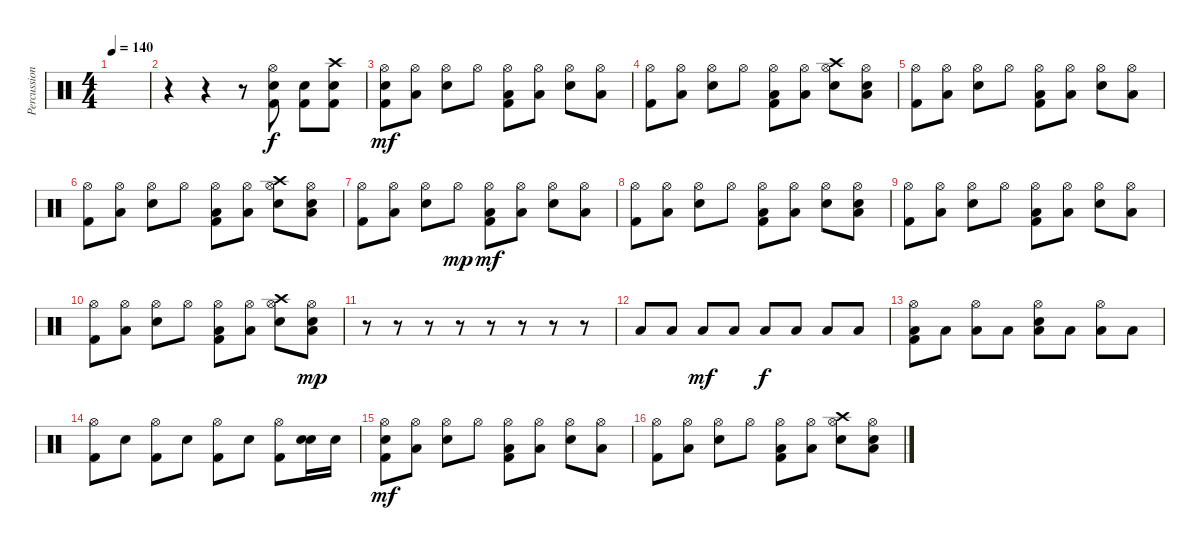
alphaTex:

\track ("Percussion" "Percussion") {instrument percussion}
\staff {score}
\articulation defaults
\ts (4 4)
\tempo 140
\clef neutral
\ks c
|
r.4 r.4 r.8 ("Hi-Hat (open)" "Electric Snare (hit)" "Kick (hit) 2").8 ("Electric Snare (hit)" "Kick (hit) 2").8 ("Crash high (hit)" "Electric Snare (hit)" "Kick (hit) 2").8 |
("Electric Snare (hit)" "Hi-Hat (open)" "Kick (hit) 2").8{dy mf} ("Low Tom (hit)" "Hi-Hat (open)").8 ("Hi-Hat (open)" "Electric Snare (hit)").8 "Hi-Hat (open)".8 ("Low Tom (hit)" "Hi-Hat (open)" "Kick (hit) 2").8 ("Low Tom (hit)" "Hi-Hat (open)").8 ("Hi-Hat (open)" "Electric Snare (hit)").8 ("Low Tom (hit)" "Hi-Hat (open)").8 |
("Hi-Hat (open)" "Kick (hit) 2").8 ("Low Tom (hit)" "Hi-Hat (open)").8 ("Hi-Hat (open)" "Electric Snare (hit)").8 "Hi-Hat (open)".8 ("Low Tom (hit)" "Hi-Hat (open)" "Kick (hit) 2").8 ("Low Tom (hit)" "Hi-Hat (open)").8 ("Crash high (hit)" "Hi-Hat (open)" "Electric Snare (hit)").8 ("Low Tom (hit)" "Hi-Hat (open)" "Electric Snare (hit)").8 |
("Hi-Hat (open)" "Kick (hit) 2").8 ("Low Tom (hit)" "Hi-Hat (open)").8 ("Hi-Hat (open)" "Electric Snare (hit)").8 "Hi-Hat (open)".8 ("Low Tom (hit)" "Hi-Hat (open)" "Kick (hit) 2").8 ("Low Tom (hit)" "Hi-Hat (open)").8 ("Hi-Hat (open)" "Electric Snare (hit)").8 ("Low Tom (hit)" "Hi-Hat (open)").8 |
("Hi-Hat (open)" "Kick (hit) 2").8 ("Low Tom (hit)" "Hi-Hat (open)").8 ("Hi-Hat (open)" "Electric Snare (hit)").8 "Hi-Hat (open)".8 ("Low Tom (hit)" "Hi-Hat (open)" "Kick (hit) 2").8 ("Low Tom (hit)" "Hi-Hat (open)").8 ("Crash high (hit)" "Hi-Hat (open)" "Electric Snare (hit)").8 ("Low Tom (hit)" "Hi-Hat (open)" "Electric Snare (hit)").8 |
("Hi-Hat (open)" "Kick (hit) 2").8 ("Low Tom (hit)" "Hi-Hat (open)").8 ("Hi-Hat (open)" "Electric Snare (hit)").8 "Hi-Hat (open)".8{dy mp} ("Low Tom (hit)" "Hi-Hat (open)" "Kick (hit) 2").8{dy mf} ("Low Tom (hit)" "Hi-Hat (open)").8 ("Hi-Hat (open)" "Electric Snare (hit)").8 ("Low Tom (hit)" "Hi-Hat (open)").8 |
("Hi-Hat (open)" "Kick (hit) 2").8 ("Low Tom (hit)" "Hi-Hat (open)").8 ("Hi-Hat (open)" "Electric Snare (hit)").8 "Hi-Hat (open)".8 ("Low Tom (hit)" "Hi-Hat (open)" "Kick (hit) 2").8 ("Low Tom (hit)" "Hi-Hat (open)").8 ("Hi-Hat (open)" "Electric Snare (hit)").8 ("Low Tom (hit)" "Hi-Hat (open)" "Electric Snare (hit)").8 |
("Hi-Hat (open)" "Kick (hit) 2").8 ("Low Tom (hit)" "Hi-Hat (open)").8 ("Hi-Hat (open)" "Electric Snare (hit)").8 "Hi-Hat (open)".8 ("Low Tom (hit)" "Hi-Hat (open)" "Kick (hit) 2").8 ("Low Tom (hit)" "Hi-Hat (open)").8 ("Hi-Hat (open)" "Electric Snare (hit)").8 ("Low Tom (hit)" "Hi-Hat (open)").8 |
("Hi-Hat (open)" "Kick (hit) 2").8 ("Low Tom (hit)" "Hi-Hat (open)").8 ("Hi-Hat (open)" "Electric Snare (hit)").8 "Hi-Hat (open)".8 ("Low Tom (hit)" "Hi-Hat (open)" "Kick (hit) 2").8 ("Low Tom (hit)" "Hi-Hat (open)").8 ("Crash high (hit)" "Hi-Hat (open)" "Electric Snare (hit)").8 ("Low Tom (hit)" "Hi-Hat (open)" "Electric Snare (hit)").8{dy mp} |
r.8 r.8 r.8 r.8 r.8 r.8 r.8 r.8 |
"Low Tom (hit)".8 "Low Tom (hit)".8 "Low Tom (hit)".8{dy mf} "Low Tom (hit)".8 "Low Tom (hit)".8{dy f} "Low Tom (hit)".8 "Low Tom (hit)".8 "Low Tom (hit)".8 |
("Hi-Hat (open)" "Low Tom (hit)" "Kick (hit) 2").8 "Low Tom (hit)".8 ("Hi-Hat (open)" "Low Tom (hit)").8 "Low Tom (hit)".8 ("Hi-Hat (open)" "Low Tom (hit)" "Electric Snare (hit)").8 "Low Tom (hit)".8 ("Hi-Hat (open)" "Low Tom (hit)").8 "Low Tom (hit)".8 |
("Hi-Hat (open)" "Kick (hit) 2").8 "Electric Snare (hit)".8 ("Hi-Hat (open)" "Kick (hit) 2").8 "Electric Snare (hit)".8 ("Hi-Hat (open)" "Kick (hit) 2").8 "Electric Snare (hit)".8 ("Hi-Hat (open)" "Kick (hit) 2").8 ("Electric Snare (hit)" "Electric Snare (hit)").16 "Electric Snare (hit)".16 |
("Electric Snare (hit)" "Hi-Hat (open)" "Kick (hit) 2").8{dy mf} ("Low Tom (hit)" "Hi-Hat (open)").8 ("Hi-Hat (open)" "Electric Snare (hit)").8 "Hi-Hat (open)".8 ("Low Tom (hit)" "Hi-Hat (open)" "Kick (hit) 2").8 ("Low Tom (hit)" "Hi-Hat (open)").8 ("Hi-Hat (open)" "Electric Snare (hit)").8 ("Low Tom (hit)" "Hi-Hat (open)").8 |
("Hi-Hat (open)" "Kick (hit) 2").8 ("Low Tom (hit)" "Hi-Hat (open)").8 ("Hi-Hat (open)" "Electric Snare (hit)").8 "Hi-Hat (open)".8 ("Low Tom (hit)" "Hi-Hat (open)" "Kick (hit) 2").8 ("Low Tom (hit)" "Hi-Hat (open)").8 ("Crash high (hit)" "Hi-Hat (open)" "Electric Snare (hit)").8 ("Low Tom (hit)" "Hi-Hat (open)" "Electric Snare (hit)").8
